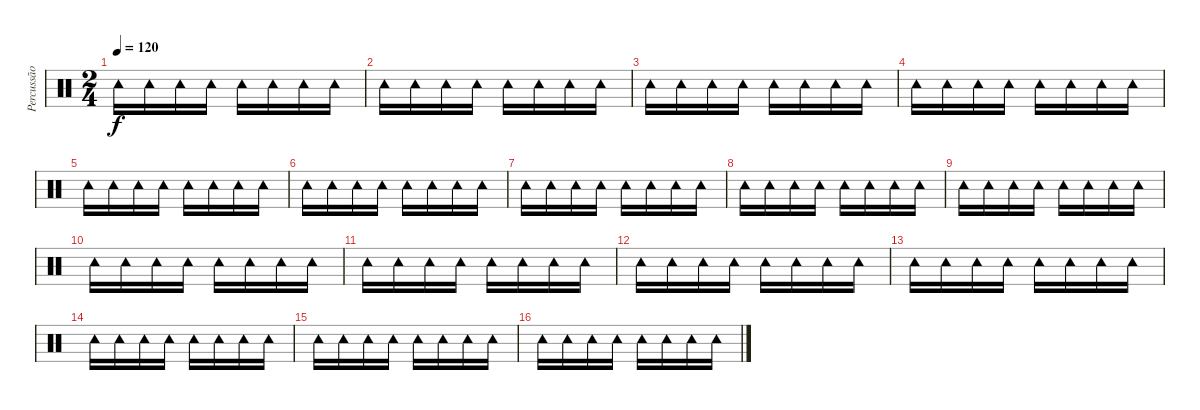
\track ("Percussão" "Percussão") {instrument percussion}
\staff {score}
\articulation defaults
\ts (2 4)
\tempo 120
\clef neutral
\ks c "Tambourine (hit)".16{dy f} "Tambourine (hit)".16 "Tambourine (hit)".16 "Tambourine (hit)".16 "Tambourine (hit)".16 "Tambourine (hit)".16 "Tambourine (hit)".16 "Tambourine (hit)".16
|
"Tambourine (hit)".16 "Tambourine (hit)".16 "Tambourine (hit)".16 "Tambourine (hit)".16 "Tambourine (hit)".16 "Tambourine (hit)".16 "Tambourine (hit)".16 "Tambourine (hit)".16 |
"Tambourine (hit)".16 "Tambourine (hit)".16 "Tambourine (hit)".16 "Tambourine (hit)".16 "Tambourine (hit)".16 "Tambourine (hit)".16 "Tambourine (hit)".16 "Tambourine (hit)".16 |
"Tambourine (hit)".16 "Tambourine (hit)".16 "Tambourine (hit)".16 "Tambourine (hit)".16 "Tambourine (hit)".16 "Tambourine (hit)".16 "Tambourine (hit)".16 "Tambourine (hit)".16 |
"Tambourine (hit)".16 "Tambourine (hit)".16 "Tambourine (hit)".16 "Tambourine (hit)".16 "Tambourine (hit)".16 "Tambourine (hit)".16 "Tambourine (hit)".16 "Tambourine (hit)".16 |
"Tambourine (hit)".16 "Tambourine (hit)".16 "Tambourine (hit)".16 "Tambourine (hit)".16 "Tambourine (hit)".16 "Tambourine (hit)".16 "Tambourine (hit)".16 "Tambourine (hit)".16 |
"Tambourine (hit)".16 "Tambourine (hit)".16 "Tambourine (hit)".16 "Tambourine (hit)".16 "Tambourine (hit)".16 "Tambourine (hit)".16 "Tambourine (hit)".16 "Tambourine (hit)".16 |
"Tambourine (hit)".16 "Tambourine (hit)".16 "Tambourine (hit)".16 "Tambourine (hit)".16 "Tambourine (hit)".16 "Tambourine (hit)".16 "Tambourine (hit)".16 "Tambourine (hit)".16 |
"Tambourine (hit)".16 "Tambourine (hit)".16 "Tambourine (hit)".16 "Tambourine (hit)".16 "Tambourine (hit)".16 "Tambourine (hit)".16 "Tambourine (hit)".16 "Tambourine (hit)".16 |
"Tambourine (hit)".16 "Tambourine (hit)".16 "Tambourine (hit)".16 "Tambourine (hit)".16 "Tambourine (hit)".16 "Tambourine (hit)".16 "Tambourine (hit)".16 "Tambourine (hit)".16 |
"Tambourine (hit)".16 "Tambourine (hit)".16 "Tambourine (hit)".16 "Tambourine (hit)".16 "Tambourine (hit)".16 "Tambourine (hit)".16 "Tambourine (hit)".16 "Tambourine (hit)".16 |
"Tambourine (hit)".16 "Tambourine (hit)".16 "Tambourine (hit)".16 "Tambourine (hit)".16 "Tambourine (hit)".16 "Tambourine (hit)".16 "Tambourine (hit)".16 "Tambourine (hit)".16 |
"Tambourine (hit)".16 "Tambourine (hit)".16 "Tambourine (hit)".16 "Tambourine (hit)".16 "Tambourine (hit)".16 "Tambourine (hit)".16 "Tambourine (hit)".16 "Tambourine (hit)".16 |
"Tambourine (hit)".16 "Tambourine (hit)".16 "Tambourine (hit)".16 "Tambourine (hit)".16 "Tambourine (hit)".16 "Tambourine (hit)".16 "Tambourine (hit)".16 "Tambourine (hit)".16 |
"Tambourine (hit)".16 "Tambourine (hit)".16 "Tambourine (hit)".16 "Tambourine (hit)".16 "Tambourine (hit)".16 "Tambourine (hit)".16 "Tambourine (hit)".16 "Tambourine (hit)".16 |
"Tambourine (hit)".16 "Tambourine (hit)".16 "Tambourine (hit)".16 "Tambourine (hit)".16 "Tambourine (hit)".16 "Tambourine (hit)".16 "Tambourine (hit)".16 "Tambourine (hit)".16
